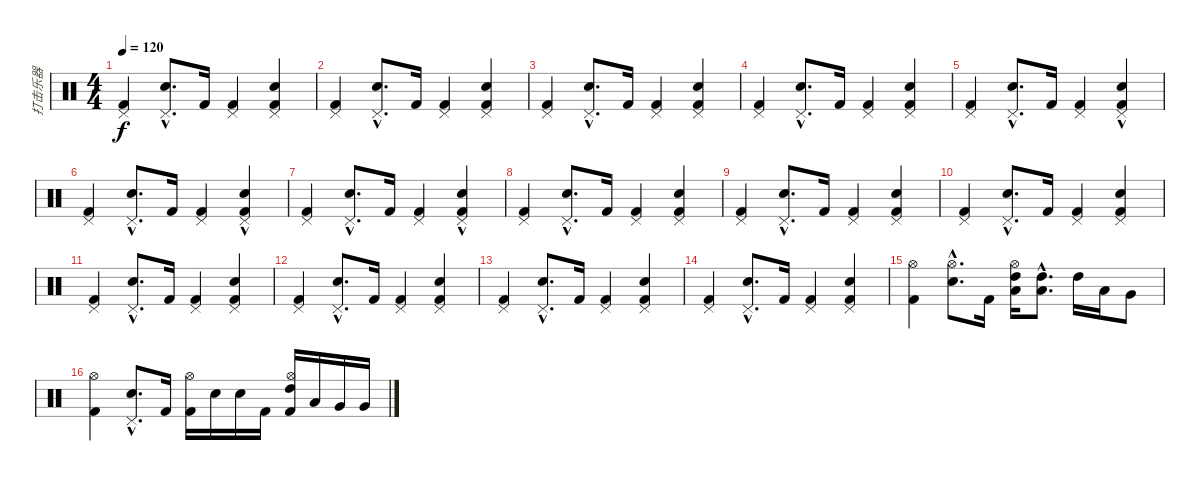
\track ("打击乐器" "打击乐器") {instrument percussion}
\staff {score}
\articulation defaults
\ts (4 4)
\tempo 120
\clef neutral
\ks c
("Pedal Hi-Hat (hit)" "Kick (hit) 2").4{dy f} ("Pedal Hi-Hat (hit)"{hac} "Snare (hit) 2"{hac}).8{d} "Kick (hit) 2".16 ("Pedal Hi-Hat (hit)" "Kick (hit) 2").4 ("Pedal Hi-Hat (hit)" "Snare (hit) 2" "Kick (hit) 2").4 |
("Pedal Hi-Hat (hit)" "Kick (hit) 2").4 ("Pedal Hi-Hat (hit)"{hac} "Snare (hit) 2"{hac}).8{d} "Kick (hit) 2".16 ("Pedal Hi-Hat (hit)" "Kick (hit) 2").4 ("Pedal Hi-Hat (hit)" "Snare (hit) 2" "Kick (hit) 2").4 |
("Pedal Hi-Hat (hit)" "Kick (hit) 2").4 ("Pedal Hi-Hat (hit)"{hac} "Snare (hit) 2"{hac}).8{d} "Kick (hit) 2".16 ("Pedal Hi-Hat (hit)" "Kick (hit) 2").4 ("Pedal Hi-Hat (hit)" "Snare (hit) 2" "Kick (hit) 2").4 |
("Pedal Hi-Hat (hit)" "Kick (hit) 2").4 ("Pedal Hi-Hat (hit)"{hac} "Snare (hit) 2"{hac}).8{d} "Kick (hit) 2".16 ("Pedal Hi-Hat (hit)" "Kick (hit) 2").4 ("Pedal Hi-Hat (hit)" "Snare (hit) 2" "Kick (hit) 2").4 |
("Pedal Hi-Hat (hit)" "Kick (hit) 2").4 ("Pedal Hi-Hat (hit)"{hac} "Snare (hit) 2"{hac}).8{d} "Kick (hit) 2".16 ("Pedal Hi-Hat (hit)" "Kick (hit) 2").4 ("Pedal Hi-Hat (hit)"{hac} "Snare (hit) 2" "Kick (hit) 2").4 |
("Pedal Hi-Hat (hit)" "Kick (hit) 2").4 ("Pedal Hi-Hat (hit)"{hac} "Snare (hit) 2"{hac}).8{d} "Kick (hit) 2".16 ("Pedal Hi-Hat (hit)" "Kick (hit) 2").4 ("Pedal Hi-Hat (hit)"{hac} "Snare (hit) 2" "Kick (hit) 2").4 |
("Pedal Hi-Hat (hit)" "Kick (hit) 2").4 ("Pedal Hi-Hat (hit)"{hac} "Snare (hit) 2"{hac}).8{d} "Kick (hit) 2".16 ("Pedal Hi-Hat (hit)" "Kick (hit) 2").4 ("Pedal Hi-Hat (hit)"{hac} "Snare (hit) 2" "Kick (hit) 2").4 |
("Pedal Hi-Hat (hit)" "Kick (hit) 2").4 ("Pedal Hi-Hat (hit)"{hac} "Snare (hit) 2"{hac}).8{d} "Kick (hit) 2".16 ("Pedal Hi-Hat (hit)" "Kick (hit) 2").4 ("Pedal Hi-Hat (hit)" "Snare (hit) 2" "Kick (hit) 2").4 |
("Pedal Hi-Hat (hit)" "Kick (hit) 2").4 ("Pedal Hi-Hat (hit)"{hac} "Snare (hit) 2"{hac}).8{d} "Kick (hit) 2".16 ("Pedal Hi-Hat (hit)" "Kick (hit) 2").4 ("Pedal Hi-Hat (hit)" "Snare (hit) 2" "Kick (hit) 2").4 |
("Pedal Hi-Hat (hit)" "Kick (hit) 2").4 ("Pedal Hi-Hat (hit)"{hac} "Snare (hit) 2"{hac}).8{d} "Kick (hit) 2".16 ("Pedal Hi-Hat (hit)" "Kick (hit) 2").4 ("Pedal Hi-Hat (hit)" "Snare (hit) 2" "Kick (hit) 2").4 |
("Pedal Hi-Hat (hit)" "Kick (hit) 2").4 ("Pedal Hi-Hat (hit)"{hac} "Snare (hit) 2"{hac}).8{d} "Kick (hit) 2".16 ("Pedal Hi-Hat (hit)" "Kick (hit) 2").4 ("Pedal Hi-Hat (hit)" "Snare (hit) 2" "Kick (hit) 2").4 |
("Pedal Hi-Hat (hit)" "Kick (hit) 2").4 ("Pedal Hi-Hat (hit)"{hac} "Snare (hit) 2"{hac}).8{d} "Kick (hit) 2".16 ("Pedal Hi-Hat (hit)" "Kick (hit) 2").4 ("Pedal Hi-Hat (hit)" "Snare (hit) 2" "Kick (hit) 2").4 |
("Pedal Hi-Hat (hit)" "Kick (hit) 2").4 ("Pedal Hi-Hat (hit)"{hac} "Snare (hit) 2"{hac}).8{d} "Kick (hit) 2".16 ("Pedal Hi-Hat (hit)" "Kick (hit) 2").4 ("Pedal Hi-Hat (hit)" "Snare (hit) 2" "Kick (hit) 2").4 |
("Pedal Hi-Hat (hit)" "Kick (hit) 2").4 ("Pedal Hi-Hat (hit)"{hac} "Snare (hit) 2"{hac}).8{d} "Kick (hit) 2".16 ("Pedal Hi-Hat (hit)" "Kick (hit) 2").4 ("Pedal Hi-Hat (hit)" "Snare (hit) 2" "Kick (hit) 2").4 |
("Hi-Hat (open)" "Kick (hit) 2").4 ("Hi-Hat (open)"{hac} "Snare (hit) 2"{hac}).8{d} "Kick (hit) 2".16 ("Hi-Hat (open)" "Low Tom (hit)" "High Tom (hit)").16 ("Low Tom (hit)"{hac} "High Tom (hit)"{hac}).8{d} "High Tom (hit)".16 "Low Tom (hit)".16 "Very Low Tom (hit)".8 |
("Hi-Hat (open)" "Kick (hit) 2").4 ("Pedal Hi-Hat (hit)"{hac} "Snare (hit) 2"{hac}).8{d} "Kick (hit) 2".16 ("Hi-Hat (open)" "Kick (hit) 2").16 "Snare (hit) 2".16 "Snare (hit) 2".16 "Kick (hit) 2".16 ("Hi-Hat (open)" "High Tom (hit)" "Kick (hit) 2").16 "Low Tom (hit)".16 "Very Low Tom (hit)".16 "Very Low Tom (hit)".16
